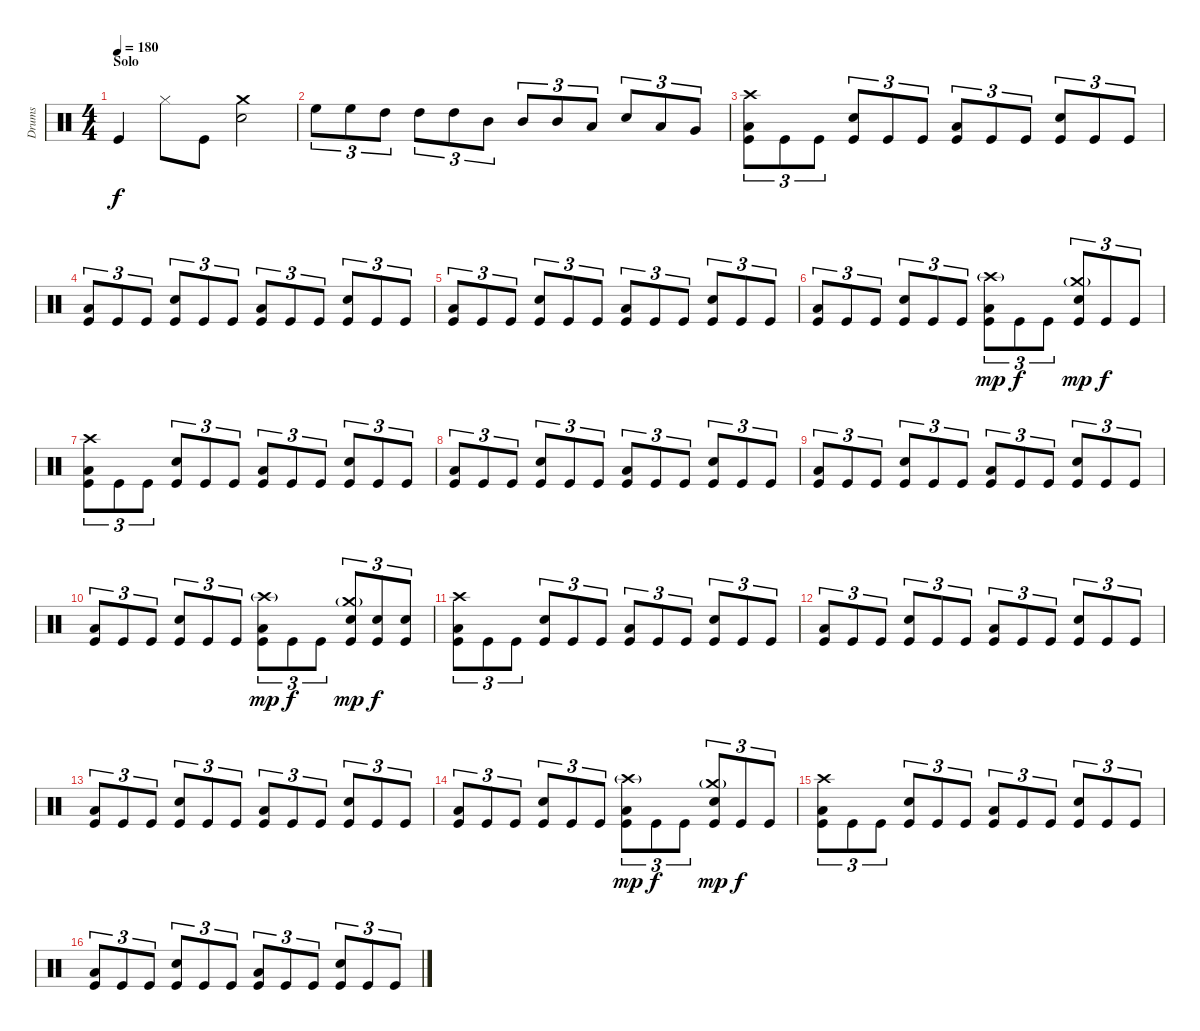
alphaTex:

\track ("Drums" "Drums") {instrument percussion}
\staff {score}
\articulation defaults
\ts (4 4)
\section ("" "Solo")
\tempo 180
\clef neutral
\ks c "Kick (hit)".4{dy f} "Hi-Hat (closed)".8 "Kick (hit)".8
("Crash medium (hit)" "Snare (hit) 2").2 |
"High Floor Tom (hit)".8{tu (3 2)} "High Floor Tom (hit)".8{tu (3 2)} "High Tom (hit)".8{tu (3 2)} "High Tom (hit)".8{tu (3 2)} "High Tom (hit)".8{tu (3 2)} "Mid Tom (hit)".8{tu (3 2)} "Mid Tom (hit)".8{tu (3 2)} "Mid Tom (hit)".8{tu (3 2)} "Low Tom (hit)".8{tu (3 2)} "Snare (hit) 2".8{tu (3 2)} "Low Tom (hit)".8{tu (3 2)} "Very Low Tom (hit)".8{tu (3 2)} |
("Crash high (hit)" "Low Tom (hit)" "Kick (hit)").8{tu (3 2)} "Kick (hit)".8{tu (3 2)} "Kick (hit)".8{tu (3 2)} ("Snare (hit) 2" "Kick (hit)").8{tu (3 2)} "Kick (hit)".8{tu (3 2)} "Kick (hit)".8{tu (3 2)} ("Low Tom (hit)" "Kick (hit)").8{tu (3 2)} "Kick (hit)".8{tu (3 2)} "Kick (hit)".8{tu (3 2)} ("Snare (hit) 2" "Kick (hit)").8{tu (3 2)} "Kick (hit)".8{tu (3 2)} "Kick (hit)".8{tu (3 2)} |
("Low Tom (hit)" "Kick (hit)").8{tu (3 2)} "Kick (hit)".8{tu (3 2)} "Kick (hit)".8{tu (3 2)} ("Snare (hit) 2" "Kick (hit)").8{tu (3 2)} "Kick (hit)".8{tu (3 2)} "Kick (hit)".8{tu (3 2)} ("Low Tom (hit)" "Kick (hit)").8{tu (3 2)} "Kick (hit)".8{tu (3 2)} "Kick (hit)".8{tu (3 2)} ("Snare (hit) 2" "Kick (hit)").8{tu (3 2)} "Kick (hit)".8{tu (3 2)} "Kick (hit)".8{tu (3 2)} |
("Low Tom (hit)" "Kick (hit)").8{tu (3 2)} "Kick (hit)".8{tu (3 2)} "Kick (hit)".8{tu (3 2)} ("Snare (hit) 2" "Kick (hit)").8{tu (3 2)} "Kick (hit)".8{tu (3 2)} "Kick (hit)".8{tu (3 2)} ("Low Tom (hit)" "Kick (hit)").8{tu (3 2)} "Kick (hit)".8{tu (3 2)} "Kick (hit)".8{tu (3 2)} ("Snare (hit) 2" "Kick (hit)").8{tu (3 2)} "Kick (hit)".8{tu (3 2)} "Kick (hit)".8{tu (3 2)} |
("Low Tom (hit)" "Kick (hit)").8{tu (3 2)} "Kick (hit)".8{tu (3 2)} "Kick (hit)".8{tu (3 2)} ("Snare (hit) 2" "Kick (hit)").8{tu (3 2)} "Kick (hit)".8{tu (3 2)} "Kick (hit)".8{tu (3 2)} ("Crash high (hit)"{g} "Low Tom (hit)" "Kick (hit)").8{tu (3 2) dy mp} "Kick (hit)".8{tu (3 2) dy f} "Kick (hit)".8{tu (3 2)} ("Crash medium (hit)"{g} "Snare (hit) 2" "Kick (hit)").8{tu (3 2) dy mp} "Kick (hit)".8{tu (3 2) dy f} "Kick (hit)".8{tu (3 2)} |
("Crash high (hit)" "Low Tom (hit)" "Kick (hit)").8{tu (3 2)} "Kick (hit)".8{tu (3 2)} "Kick (hit)".8{tu (3 2)} ("Snare (hit) 2" "Kick (hit)").8{tu (3 2)} "Kick (hit)".8{tu (3 2)} "Kick (hit)".8{tu (3 2)} ("Low Tom (hit)" "Kick (hit)").8{tu (3 2)} "Kick (hit)".8{tu (3 2)} "Kick (hit)".8{tu (3 2)} ("Snare (hit) 2" "Kick (hit)").8{tu (3 2)} "Kick (hit)".8{tu (3 2)} "Kick (hit)".8{tu (3 2)} |
("Low Tom (hit)" "Kick (hit)").8{tu (3 2)} "Kick (hit)".8{tu (3 2)} "Kick (hit)".8{tu (3 2)} ("Snare (hit) 2" "Kick (hit)").8{tu (3 2)} "Kick (hit)".8{tu (3 2)} "Kick (hit)".8{tu (3 2)} ("Low Tom (hit)" "Kick (hit)").8{tu (3 2)} "Kick (hit)".8{tu (3 2)} "Kick (hit)".8{tu (3 2)} ("Snare (hit) 2" "Kick (hit)").8{tu (3 2)} "Kick (hit)".8{tu (3 2)} "Kick (hit)".8{tu (3 2)} |
("Low Tom (hit)" "Kick (hit)").8{tu (3 2)} "Kick (hit)".8{tu (3 2)} "Kick (hit)".8{tu (3 2)} ("Snare (hit) 2" "Kick (hit)").8{tu (3 2)} "Kick (hit)".8{tu (3 2)} "Kick (hit)".8{tu (3 2)} ("Low Tom (hit)" "Kick (hit)").8{tu (3 2)} "Kick (hit)".8{tu (3 2)} "Kick (hit)".8{tu (3 2)} ("Snare (hit) 2" "Kick (hit)").8{tu (3 2)} "Kick (hit)".8{tu (3 2)} "Kick (hit)".8{tu (3 2)} |
("Low Tom (hit)" "Kick (hit)").8{tu (3 2)} "Kick (hit)".8{tu (3 2)} "Kick (hit)".8{tu (3 2)} ("Snare (hit) 2" "Kick (hit)").8{tu (3 2)} "Kick (hit)".8{tu (3 2)} "Kick (hit)".8{tu (3 2)} ("Crash high (hit)"{g} "Low Tom (hit)" "Kick (hit)").8{tu (3 2) dy mp} "Kick (hit)".8{tu (3 2) dy f} "Kick (hit)".8{tu (3 2)} ("Crash medium (hit)"{g} "Snare (hit) 2" "Kick (hit)").8{tu (3 2) dy mp} ("Snare (hit) 2" "Kick (hit)").8{tu (3 2) dy f} ("Snare (hit) 2" "Kick (hit)").8{tu (3 2)} |
("Crash high (hit)" "Low Tom (hit)" "Kick (hit)").8{tu (3 2)} "Kick (hit)".8{tu (3 2)} "Kick (hit)".8{tu (3 2)} ("Snare (hit) 2" "Kick (hit)").8{tu (3 2)} "Kick (hit)".8{tu (3 2)} "Kick (hit)".8{tu (3 2)} ("Low Tom (hit)" "Kick (hit)").8{tu (3 2)} "Kick (hit)".8{tu (3 2)} "Kick (hit)".8{tu (3 2)} ("Snare (hit) 2" "Kick (hit)").8{tu (3 2)} "Kick (hit)".8{tu (3 2)} "Kick (hit)".8{tu (3 2)} |
("Low Tom (hit)" "Kick (hit)").8{tu (3 2)} "Kick (hit)".8{tu (3 2)} "Kick (hit)".8{tu (3 2)} ("Snare (hit) 2" "Kick (hit)").8{tu (3 2)} "Kick (hit)".8{tu (3 2)} "Kick (hit)".8{tu (3 2)} ("Low Tom (hit)" "Kick (hit)").8{tu (3 2)} "Kick (hit)".8{tu (3 2)} "Kick (hit)".8{tu (3 2)} ("Snare (hit) 2" "Kick (hit)").8{tu (3 2)} "Kick (hit)".8{tu (3 2)} "Kick (hit)".8{tu (3 2)} |
("Low Tom (hit)" "Kick (hit)").8{tu (3 2)} "Kick (hit)".8{tu (3 2)} "Kick (hit)".8{tu (3 2)} ("Snare (hit) 2" "Kick (hit)").8{tu (3 2)} "Kick (hit)".8{tu (3 2)} "Kick (hit)".8{tu (3 2)} ("Low Tom (hit)" "Kick (hit)").8{tu (3 2)} "Kick (hit)".8{tu (3 2)} "Kick (hit)".8{tu (3 2)} ("Snare (hit) 2" "Kick (hit)").8{tu (3 2)} "Kick (hit)".8{tu (3 2)} "Kick (hit)".8{tu (3 2)} |
("Low Tom (hit)" "Kick (hit)").8{tu (3 2)} "Kick (hit)".8{tu (3 2)} "Kick (hit)".8{tu (3 2)} ("Snare (hit) 2" "Kick (hit)").8{tu (3 2)} "Kick (hit)".8{tu (3 2)} "Kick (hit)".8{tu (3 2)} ("Crash high (hit)"{g} "Low Tom (hit)" "Kick (hit)").8{tu (3 2) dy mp} "Kick (hit)".8{tu (3 2) dy f} "Kick (hit)".8{tu (3 2)} ("Crash medium (hit)"{g} "Snare (hit) 2" "Kick (hit)").8{tu (3 2) dy mp} "Kick (hit)".8{tu (3 2) dy f} "Kick (hit)".8{tu (3 2)} |
("Crash high (hit)" "Low Tom (hit)" "Kick (hit)").8{tu (3 2)} "Kick (hit)".8{tu (3 2)} "Kick (hit)".8{tu (3 2)} ("Snare (hit) 2" "Kick (hit)").8{tu (3 2)} "Kick (hit)".8{tu (3 2)} "Kick (hit)".8{tu (3 2)} ("Low Tom (hit)" "Kick (hit)").8{tu (3 2)} "Kick (hit)".8{tu (3 2)} "Kick (hit)".8{tu (3 2)} ("Snare (hit) 2" "Kick (hit)").8{tu (3 2)} "Kick (hit)".8{tu (3 2)} "Kick (hit)".8{tu (3 2)} |
("Low Tom (hit)" "Kick (hit)").8{tu (3 2)} "Kick (hit)".8{tu (3 2)} "Kick (hit)".8{tu (3 2)} ("Snare (hit) 2" "Kick (hit)").8{tu (3 2)} "Kick (hit)".8{tu (3 2)} "Kick (hit)".8{tu (3 2)} ("Low Tom (hit)" "Kick (hit)").8{tu (3 2)} "Kick (hit)".8{tu (3 2)} "Kick (hit)".8{tu (3 2)} ("Snare (hit) 2" "Kick (hit)").8{tu (3 2)} "Kick (hit)".8{tu (3 2)} "Kick (hit)".8{tu (3 2)}
